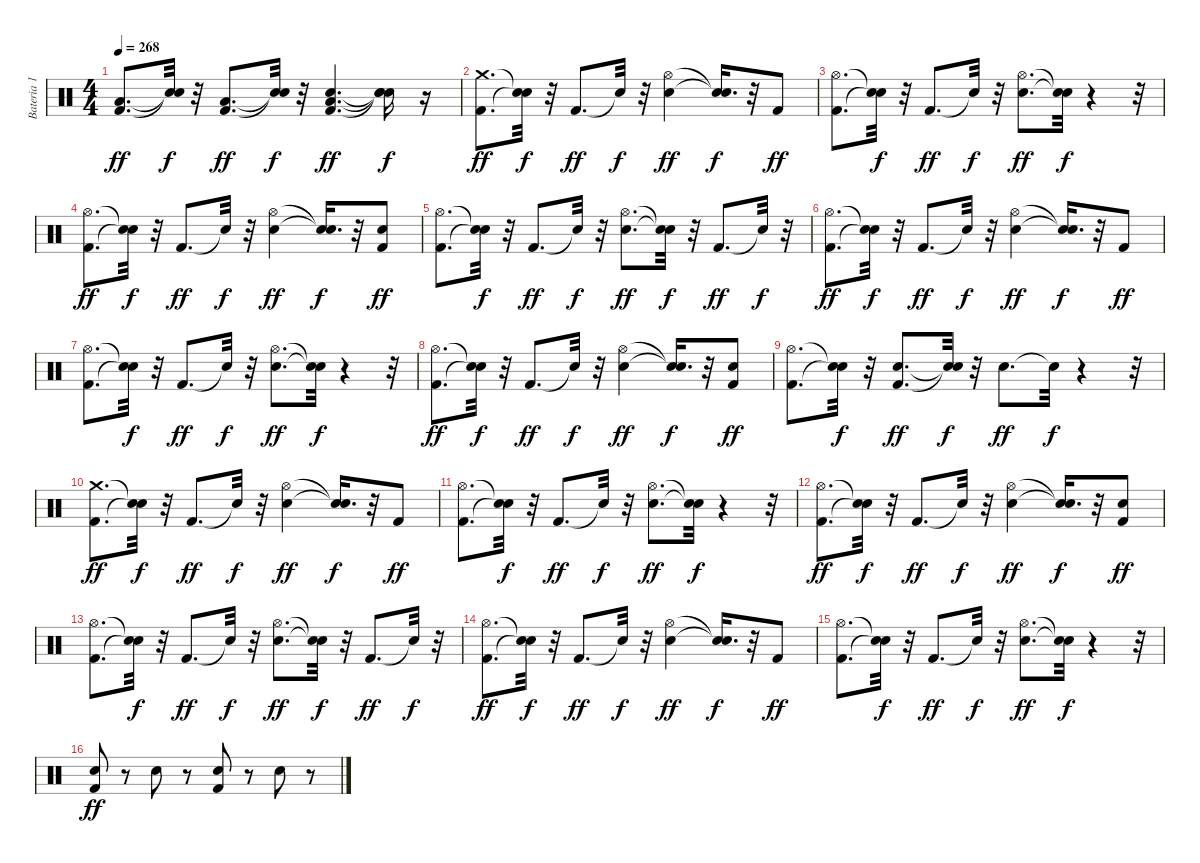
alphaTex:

\track ("Bateria 1" "Bateria 1") {instrument percussion}
\staff {score}
\articulation defaults
\ts (4 4)
\tempo 268
\clef neutral
\ks c
("Kick (hit) 2" "Low Floor Tom (hit)").8{d dy ff} ("Snare (hit)"{t} "Snare (hit)"{t}).32{dy f} r.32 ("Kick (hit) 2" "Low Floor Tom (hit)").8{d dy ff} ("Snare (hit)"{t} "Snare (hit)"{t}).32{dy f} r.32 ("Kick (hit) 2" "Electric Snare (hit)" "Low Floor Tom (hit)").4{d dy ff} ("Snare (hit)"{t} "Snare (hit)"{t} "Snare (hit)"{t}).16{dy f} r.16 |
("Kick (hit) 2" "Crash medium (hit)").8{d dy ff} ("Snare (hit)"{t} "Snare (hit)"{t}).32{dy f} r.32 "Kick (hit) 2".8{d dy ff} "Snare (hit)"{t}.32{dy f} r.32 ("Electric Snare (hit)" "Hi-Hat (open)").4{dy ff} ("Snare (hit)"{t} "Snare (hit)"{t}).16{d dy f} r.32 "Kick (hit) 2".8{dy ff} |
("Kick (hit) 2" "Hi-Hat (open)").8{d} ("Snare (hit)"{t} "Snare (hit)"{t}).32{dy f} r.32 "Kick (hit) 2".8{d dy ff} "Snare (hit)"{t}.32{dy f} r.32 ("Electric Snare (hit)" "Hi-Hat (open)").8{d dy ff} ("Snare (hit)"{t} "Snare (hit)"{t}).32{dy f} r.4 r.32 |
("Kick (hit) 2" "Hi-Hat (open)").8{d dy ff} ("Snare (hit)"{t} "Snare (hit)"{t}).32{dy f} r.32 "Kick (hit) 2".8{d dy ff} "Snare (hit)"{t}.32{dy f} r.32 ("Electric Snare (hit)" "Hi-Hat (open)").4{dy ff} ("Snare (hit)"{t} "Snare (hit)"{t}).16{d dy f} r.32 ("Kick (hit) 2" "Electric Snare (hit)").8{dy ff} |
("Kick (hit) 2" "Hi-Hat (open)").8{d} ("Snare (hit)"{t} "Snare (hit)"{t}).32{dy f} r.32 "Kick (hit) 2".8{d dy ff} "Snare (hit)"{t}.32{dy f} r.32 ("Electric Snare (hit)" "Hi-Hat (open)").8{d dy ff} ("Snare (hit)"{t} "Snare (hit)"{t}).32{dy f} r.32 "Kick (hit) 2".8{d dy ff} "Snare (hit)"{t}.32{dy f} r.32 |
("Kick (hit) 2" "Hi-Hat (open)").8{d dy ff} ("Snare (hit)"{t} "Snare (hit)"{t}).32{dy f} r.32 "Kick (hit) 2".8{d dy ff} "Snare (hit)"{t}.32{dy f} r.32 ("Electric Snare (hit)" "Hi-Hat (open)").4{dy ff} ("Snare (hit)"{t} "Snare (hit)"{t}).16{d dy f} r.32 "Kick (hit) 2".8{dy ff} |
("Kick (hit) 2" "Hi-Hat (open)").8{d} ("Snare (hit)"{t} "Snare (hit)"{t}).32{dy f} r.32 "Kick (hit) 2".8{d dy ff} "Snare (hit)"{t}.32{dy f} r.32 ("Electric Snare (hit)" "Hi-Hat (open)").8{d dy ff} ("Snare (hit)"{t} "Snare (hit)"{t}).32{dy f} r.4 r.32 |
("Kick (hit) 2" "Hi-Hat (open)").8{d dy ff} ("Snare (hit)"{t} "Snare (hit)"{t}).32{dy f} r.32 "Kick (hit) 2".8{d dy ff} "Snare (hit)"{t}.32{dy f} r.32 ("Electric Snare (hit)" "Hi-Hat (open)").4{dy ff} ("Snare (hit)"{t} "Snare (hit)"{t}).16{d dy f} r.32 ("Kick (hit) 2" "Electric Snare (hit)").8{dy ff} |
("Kick (hit) 2" "Hi-Hat (open)").8{d} ("Snare (hit)"{t} "Snare (hit)"{t}).32{dy f} r.32 ("Kick (hit) 2" "Electric Snare (hit)").8{d dy ff} ("Snare (hit)"{t} "Snare (hit)"{t}).32{dy f} r.32 "Electric Snare (hit)".8{d dy ff} "Snare (hit)"{t}.32{dy f} r.4 r.32 |
("Kick (hit) 2" "Crash medium (hit)").8{d dy ff} ("Snare (hit)"{t} "Snare (hit)"{t}).32{dy f} r.32 "Kick (hit) 2".8{d dy ff} "Snare (hit)"{t}.32{dy f} r.32 ("Electric Snare (hit)" "Hi-Hat (open)").4{dy ff} ("Snare (hit)"{t} "Snare (hit)"{t}).16{d dy f} r.32 "Kick (hit) 2".8{dy ff} |
("Kick (hit) 2" "Hi-Hat (open)").8{d} ("Snare (hit)"{t} "Snare (hit)"{t}).32{dy f} r.32 "Kick (hit) 2".8{d dy ff} "Snare (hit)"{t}.32{dy f} r.32 ("Electric Snare (hit)" "Hi-Hat (open)").8{d dy ff} ("Snare (hit)"{t} "Snare (hit)"{t}).32{dy f} r.4 r.32 |
("Kick (hit) 2" "Hi-Hat (open)").8{d dy ff} ("Snare (hit)"{t} "Snare (hit)"{t}).32{dy f} r.32 "Kick (hit) 2".8{d dy ff} "Snare (hit)"{t}.32{dy f} r.32 ("Electric Snare (hit)" "Hi-Hat (open)").4{dy ff} ("Snare (hit)"{t} "Snare (hit)"{t}).16{d dy f} r.32 ("Kick (hit) 2" "Electric Snare (hit)").8{dy ff} |
("Kick (hit) 2" "Hi-Hat (open)").8{d} ("Snare (hit)"{t} "Snare (hit)"{t}).32{dy f} r.32 "Kick (hit) 2".8{d dy ff} "Snare (hit)"{t}.32{dy f} r.32 ("Electric Snare (hit)" "Hi-Hat (open)").8{d dy ff} ("Snare (hit)"{t} "Snare (hit)"{t}).32{dy f} r.32 "Kick (hit) 2".8{d dy ff} "Snare (hit)"{t}.32{dy f} r.32 |
("Kick (hit) 2" "Hi-Hat (open)").8{d dy ff} ("Snare (hit)"{t} "Snare (hit)"{t}).32{dy f} r.32 "Kick (hit) 2".8{d dy ff} "Snare (hit)"{t}.32{dy f} r.32 ("Electric Snare (hit)" "Hi-Hat (open)").4{dy ff} ("Snare (hit)"{t} "Snare (hit)"{t}).16{d dy f} r.32 "Kick (hit) 2".8{dy ff} |
("Kick (hit) 2" "Hi-Hat (open)").8{d} ("Snare (hit)"{t} "Snare (hit)"{t}).32{dy f} r.32 "Kick (hit) 2".8{d dy ff} "Snare (hit)"{t}.32{dy f} r.32 ("Electric Snare (hit)" "Hi-Hat (open)").8{d dy ff} ("Snare (hit)"{t} "Snare (hit)"{t}).32{dy f} r.4 r.32 |
("Kick (hit) 2" "Electric Snare (hit)").8{dy ff volume 5} r.8 "Electric Snare (hit)".8{volume 7} r.8 ("Kick (hit) 2" "Electric Snare (hit)").8{volume 9} r.8 "Electric Snare (hit)".8{volume 10} r.8
